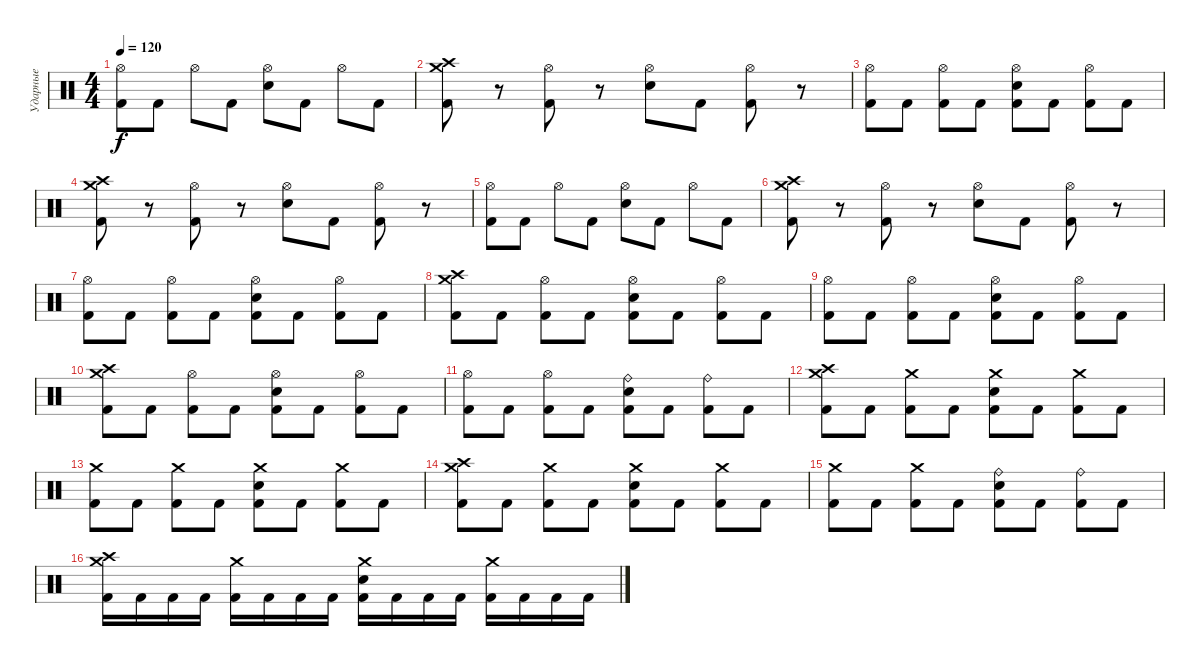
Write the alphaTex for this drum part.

\track ("Ударные" "Ударные") {instrument percussion}
\staff {score}
\articulation defaults
\ts (4 4)
\tempo 120
\clef neutral
\ks c
("Hi-Hat (open)" "Kick (hit) 2").8{dy f} "Kick (hit) 2".8 "Hi-Hat (open)".8 "Kick (hit) 2".8 ("Hi-Hat (open)" "Electric Snare (hit)").8 "Kick (hit) 2".8 "Hi-Hat (open)".8 "Kick (hit) 2".8 |
("Crash high (hit)" "Crash medium (hit)" "Kick (hit) 2").8 r.8 ("Hi-Hat (open)" "Kick (hit) 2").8 r.8 ("Hi-Hat (open)" "Electric Snare (hit)").8 "Kick (hit) 2".8 ("Hi-Hat (open)" "Kick (hit) 2").8 r.8 |
("Hi-Hat (open)" "Kick (hit) 2").8 "Kick (hit) 2".8 ("Hi-Hat (open)" "Kick (hit) 2").8 "Kick (hit) 2".8 ("Hi-Hat (open)" "Electric Snare (hit)" "Kick (hit) 2").8 "Kick (hit) 2".8 ("Hi-Hat (open)" "Kick (hit) 2").8 "Kick (hit) 2".8 |
("Crash high (hit)" "Crash medium (hit)" "Kick (hit) 2").8 r.8 ("Hi-Hat (open)" "Kick (hit) 2").8 r.8 ("Hi-Hat (open)" "Electric Snare (hit)").8 "Kick (hit) 2".8 ("Hi-Hat (open)" "Kick (hit) 2").8 r.8 |
("Hi-Hat (open)" "Kick (hit) 2").8 "Kick (hit) 2".8 "Hi-Hat (open)".8 "Kick (hit) 2".8 ("Hi-Hat (open)" "Electric Snare (hit)").8 "Kick (hit) 2".8 "Hi-Hat (open)".8 "Kick (hit) 2".8 |
("Crash high (hit)" "Crash medium (hit)" "Kick (hit) 2").8 r.8 ("Hi-Hat (open)" "Kick (hit) 2").8 r.8 ("Hi-Hat (open)" "Electric Snare (hit)").8 "Kick (hit) 2".8 ("Hi-Hat (open)" "Kick (hit) 2").8 r.8 |
("Hi-Hat (open)" "Kick (hit) 2").8 "Kick (hit) 2".8 ("Hi-Hat (open)" "Kick (hit) 2").8 "Kick (hit) 2".8 ("Hi-Hat (open)" "Electric Snare (hit)" "Kick (hit) 2").8 "Kick (hit) 2".8 ("Hi-Hat (open)" "Kick (hit) 2").8 "Kick (hit) 2".8 |
("Crash medium (hit)" "Crash high (hit)" "Kick (hit) 2").8 "Kick (hit) 2".8 ("Hi-Hat (open)" "Kick (hit) 2").8 "Kick (hit) 2".8 ("Hi-Hat (open)" "Electric Snare (hit)" "Kick (hit) 2").8 "Kick (hit) 2".8 ("Hi-Hat (open)" "Kick (hit) 2").8 "Kick (hit) 2".8 |
("Hi-Hat (open)" "Kick (hit) 2").8 "Kick (hit) 2".8 ("Hi-Hat (open)" "Kick (hit) 2").8 "Kick (hit) 2".8 ("Hi-Hat (open)" "Electric Snare (hit)" "Kick (hit) 2").8 "Kick (hit) 2".8 ("Hi-Hat (open)" "Kick (hit) 2").8 "Kick (hit) 2".8 |
("Crash medium (hit)" "Crash high (hit)" "Kick (hit) 2").8 "Kick (hit) 2".8 ("Hi-Hat (open)" "Kick (hit) 2").8 "Kick (hit) 2".8 ("Hi-Hat (open)" "Electric Snare (hit)" "Kick (hit) 2").8 "Kick (hit) 2".8 ("Hi-Hat (open)" "Kick (hit) 2").8 "Kick (hit) 2".8 |
("Hi-Hat (open)" "Kick (hit) 2").8 "Kick (hit) 2".8 ("Hi-Hat (open)" "Kick (hit) 2").8 "Kick (hit) 2".8 ("Ride (bell)" "Electric Snare (hit)" "Kick (hit) 2").8 "Kick (hit) 2".8 ("Ride (bell)" "Kick (hit) 2").8 "Kick (hit) 2".8 |
("Crash medium (hit)" "Crash high (hit)" "Kick (hit) 2").8 "Kick (hit) 2".8 ("Crash medium (hit)" "Kick (hit) 2").8 "Kick (hit) 2".8 ("Crash medium (hit)" "Electric Snare (hit)" "Kick (hit) 2").8 "Kick (hit) 2".8 ("Crash medium (hit)" "Kick (hit) 2").8 "Kick (hit) 2".8 |
("Crash medium (hit)" "Kick (hit) 2").8 "Kick (hit) 2".8 ("Crash medium (hit)" "Kick (hit) 2").8 "Kick (hit) 2".8 ("Crash medium (hit)" "Electric Snare (hit)" "Kick (hit) 2").8 "Kick (hit) 2".8 ("Crash medium (hit)" "Kick (hit) 2").8 "Kick (hit) 2".8 |
("Crash medium (hit)" "Crash high (hit)" "Kick (hit) 2").8 "Kick (hit) 2".8 ("Crash medium (hit)" "Kick (hit) 2").8 "Kick (hit) 2".8 ("Crash medium (hit)" "Electric Snare (hit)" "Kick (hit) 2").8 "Kick (hit) 2".8 ("Crash medium (hit)" "Kick (hit) 2").8 "Kick (hit) 2".8 |
("Crash medium (hit)" "Kick (hit) 2").8 "Kick (hit) 2".8 ("Crash medium (hit)" "Kick (hit) 2").8 "Kick (hit) 2".8 ("Ride (bell)" "Electric Snare (hit)" "Kick (hit) 2").8 "Kick (hit) 2".8 ("Ride (bell)" "Kick (hit) 2").8 "Kick (hit) 2".8 |
("Crash medium (hit)" "Crash high (hit)" "Kick (hit) 2").16 "Kick (hit) 2".16 "Kick (hit) 2".16 "Kick (hit) 2".16 ("Crash medium (hit)" "Kick (hit) 2").16 "Kick (hit) 2".16 "Kick (hit) 2".16 "Kick (hit) 2".16 ("Crash medium (hit)" "Electric Snare (hit)" "Kick (hit) 2").16 "Kick (hit) 2".16 "Kick (hit) 2".16 "Kick (hit) 2".16 ("Crash medium (hit)" "Kick (hit) 2").16 "Kick (hit) 2".16 "Kick (hit) 2".16 "Kick (hit) 2".16
